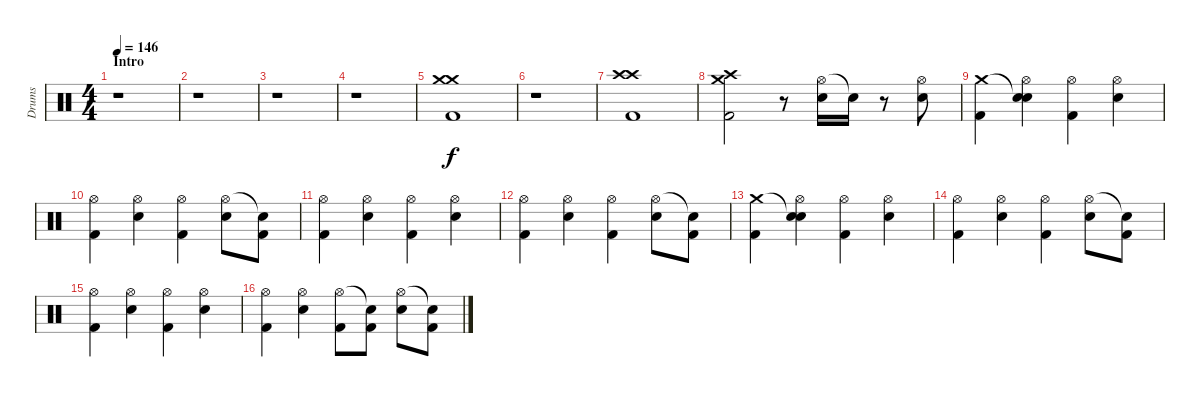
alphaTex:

\track ("Drums" "Drums") {instrument percussion}
\staff {score}
\articulation defaults
\ts (4 4)
\section ("" "Intro")
\tempo 146
\clef neutral
\ks c
r.1{dy f} |
r.1 |
r.1 |
r.1 |
("Crash medium (hit)" "Crash medium (hit)" "Kick (hit) 2").1 |
r.1 |
("Crash high (hit)" "Crash high (hit)" "Kick (hit) 2").1 |
("Crash medium (hit)" "Crash high (hit)" "Kick (hit) 2").2 r.8 ("Hi-Hat (open)" "Electric Snare (hit)").16 "Snare (hit)"{t}.16 r.8 ("Hi-Hat (open)" "Electric Snare (hit)").8 |
("Crash medium (hit)" "Kick (hit) 2").4 ("Snare (hit)"{t} "Hi-Hat (open)" "Electric Snare (hit)").4 ("Hi-Hat (open)" "Kick (hit) 2").4 ("Hi-Hat (open)" "Electric Snare (hit)").4 |
("Hi-Hat (open)" "Kick (hit) 2").4 ("Hi-Hat (open)" "Electric Snare (hit)").4 ("Hi-Hat (open)" "Kick (hit) 2").4 ("Hi-Hat (open)" "Electric Snare (hit)").8 ("Snare (hit)"{t} "Kick (hit) 2").8 |
("Hi-Hat (open)" "Kick (hit) 2").4 ("Hi-Hat (open)" "Electric Snare (hit)").4 ("Hi-Hat (open)" "Kick (hit) 2").4 ("Hi-Hat (open)" "Electric Snare (hit)").4 |
("Hi-Hat (open)" "Kick (hit) 2").4 ("Hi-Hat (open)" "Electric Snare (hit)").4 ("Hi-Hat (open)" "Kick (hit) 2").4 ("Hi-Hat (open)" "Electric Snare (hit)").8 ("Snare (hit)"{t} "Kick (hit) 2").8 |
("Crash medium (hit)" "Kick (hit) 2").4 ("Snare (hit)"{t} "Hi-Hat (open)" "Electric Snare (hit)").4 ("Hi-Hat (open)" "Kick (hit) 2").4 ("Hi-Hat (open)" "Electric Snare (hit)").4 |
("Hi-Hat (open)" "Kick (hit) 2").4 ("Hi-Hat (open)" "Electric Snare (hit)").4 ("Hi-Hat (open)" "Kick (hit) 2").4 ("Hi-Hat (open)" "Electric Snare (hit)").8 ("Snare (hit)"{t} "Kick (hit) 2").8 |
("Hi-Hat (open)" "Kick (hit) 2").4 ("Hi-Hat (open)" "Electric Snare (hit)").4 ("Hi-Hat (open)" "Kick (hit) 2").4 ("Hi-Hat (open)" "Electric Snare (hit)").4 |
("Hi-Hat (open)" "Kick (hit) 2").4 ("Hi-Hat (open)" "Electric Snare (hit)").4 ("Hi-Hat (open)" "Kick (hit) 2").8 ("Snare (hit)"{t} "Kick (hit) 2").8 ("Hi-Hat (open)" "Electric Snare (hit)").8 ("Snare (hit)"{t} "Kick (hit) 2").8
